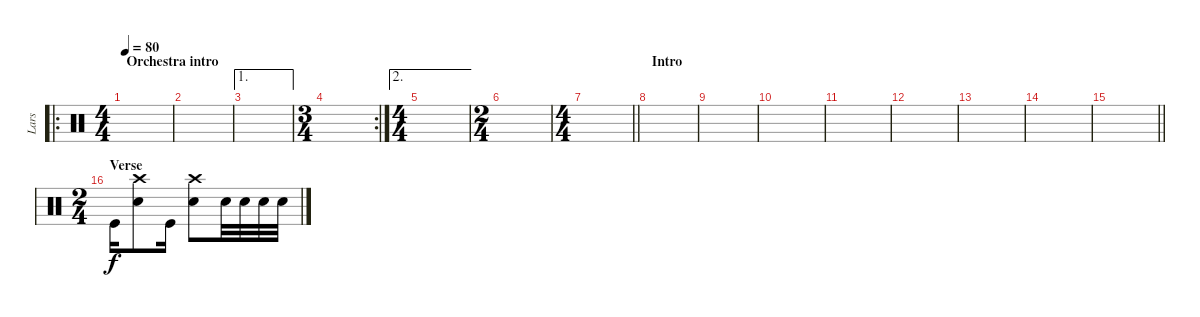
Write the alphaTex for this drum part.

\track ("Lars" "Lars") {instrument percussion}
\staff {score}
\articulation defaults
\ro
\ts (4 4)
\section ("" "Orchestra intro")
\tempo 80
\clef neutral
\ks c
|
|
\ae 1
|
\rc 2
\ts (3 4)
|
\ae 2
\ts (4 4)
|
\ts (2 4)
|
\ts (4 4)
\barLineRight lightlight
|
\section ("" "Intro")
|
|
|
|
|
|
|
\barLineRight lightlight
|
\ts (2 4)
\section ("" "Verse")
"Kick (hit)".16 ("Crash high (hit)" "Snare (hit) 2").8 "Kick (hit)".16 ("Crash high (hit)" "Snare (hit) 2").8 "Snare (hit) 2".32 "Snare (hit) 2".32 "Snare (hit) 2".32 "Snare (hit) 2".32
